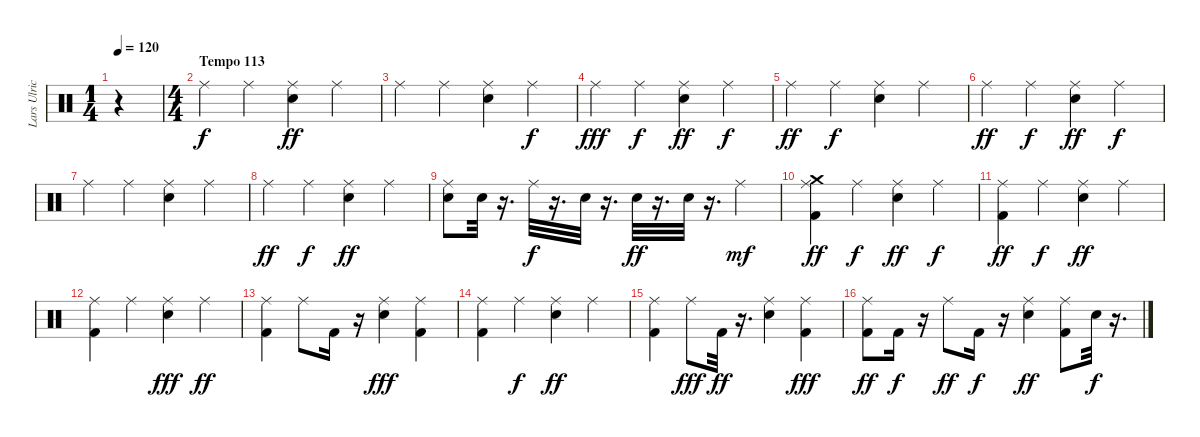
\track ("Lars Ulrich" "Lars Ulric") {instrument percussion}
\staff {score}
\articulation defaults
\ts (1 4)
\tempo 120
\tempo 113
\tempo 120
\clef neutral
\ks c
r.4{dy f} |
\ts (4 4)
\section ("" "Tempo 113")
"Ride (middle)".4 "Ride (middle)".4 ("Snare (hit) 2" "Ride (middle)").4{dy ff} "Ride (middle)".4 |
"Ride (middle)".4 "Ride (middle)".4 ("Ride (middle)" "Snare (hit) 2").4 "Ride (middle)".4{dy f} |
"Ride (middle)".4{dy fff} "Ride (middle)".4{dy f} ("Snare (hit) 2" "Ride (middle)").4{dy ff} "Ride (middle)".4{dy f} |
"Ride (middle)".4{dy ff} "Ride (middle)".4{dy f} ("Snare (hit) 2" "Ride (middle)").4 "Ride (middle)".4 |
"Ride (middle)".4{dy ff} "Ride (middle)".4{dy f} ("Snare (hit) 2" "Ride (middle)").4{dy ff} "Ride (middle)".4{dy f} |
"Ride (middle)".4 "Ride (middle)".4 ("Snare (hit) 2" "Ride (middle)").4 "Ride (middle)".4 |
"Ride (middle)".4{dy ff} "Ride (middle)".4{dy f} ("Snare (hit) 2" "Ride (middle)").4{dy ff} "Ride (middle)".4 |
("Snare (hit) 2" "Ride (middle)").8 "Snare (hit) 2".32 r.16{d} "Ride (middle)".32{dy f} r.16{d} "Snare (hit) 2".32 r.16{d} "Snare (hit) 2".32{dy ff} r.16{d} "Snare (hit) 2".32 r.16{d} "Ride (middle)".4{dy mf} |
("Kick (hit) 2" "Ride (middle)" "Crash medium (hit)").4{dy ff} "Ride (middle)".4{dy f} ("Snare (hit) 2" "Ride (middle)").4{dy ff} "Ride (middle)".4{dy f} |
("Kick (hit) 2" "Ride (middle)").4{dy ff} "Ride (middle)".4{dy f} ("Snare (hit) 2" "Ride (middle)").4{dy ff} "Ride (middle)".4 |
("Kick (hit) 2" "Ride (middle)").4 "Ride (middle)".4 ("Snare (hit) 2" "Ride (middle)").4{dy fff} "Ride (middle)".4{dy ff} |
("Kick (hit) 2" "Ride (middle)").4 "Ride (middle)".8 "Kick (hit) 2".16 r.16 ("Snare (hit) 2" "Ride (middle)").4{dy fff} ("Kick (hit) 2" "Ride (middle)").4 |
("Kick (hit) 2" "Ride (middle)").4 "Ride (middle)".4{dy f} ("Ride (middle)" "Snare (hit) 2").4{dy ff} "Ride (middle)".4 |
("Kick (hit) 2" "Ride (middle)").4 "Ride (middle)".8{dy fff} "Kick (hit) 2".32{dy ff} r.16{d} ("Snare (hit) 2" "Ride (middle)").4 ("Kick (hit) 2" "Ride (middle)").4{dy fff} |
("Kick (hit) 2" "Ride (middle)").8{dy ff} "Kick (hit) 2".16{dy f} r.16 "Ride (middle)".8{dy ff} "Kick (hit) 2".16{dy f} r.16 ("Snare (hit) 2" "Ride (middle)").4{dy ff} ("Kick (hit) 2" "Ride (middle)").8 "Snare (hit) 2".32{dy f} r.16{d}
